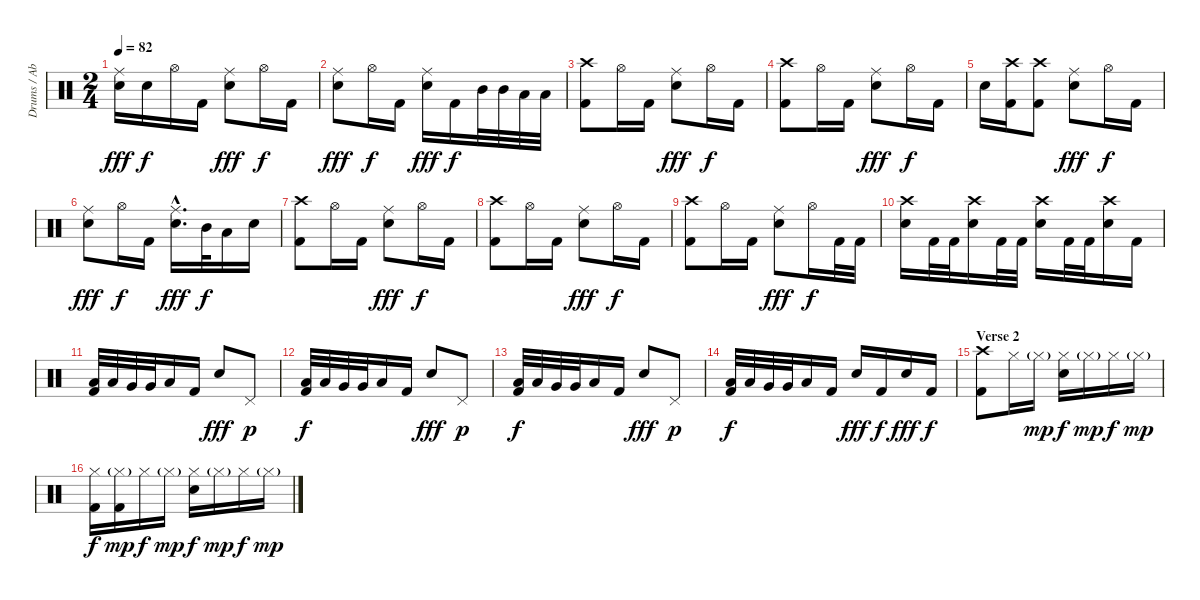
\track ("Drums / Abe Cunningham" "Drums / Ab") {instrument percussion}
\staff {score}
\articulation defaults
\ts (2 4)
\tempo 82
\clef neutral
\ks c
("Ride (middle)" "Electric Snare (hit)").16{dy fff} "Electric Snare (hit)".16{dy f} "Hi-Hat (open)".16 "Kick (hit) 2".16 ("Ride (middle)" "Electric Snare (hit)").8{dy fff} "Hi-Hat (open)".16{dy f} "Kick (hit) 2".16 |
("Ride (middle)" "Electric Snare (hit)").8{dy fff} "Hi-Hat (open)".16{dy f} "Kick (hit) 2".16 ("Ride (middle)" "Electric Snare (hit)").16{dy fff} "Kick (hit) 2".16{dy f} "Mid Tom (hit)".32 "Mid Tom (hit)".32 "Low Tom (hit)".32 "Low Tom (hit)".32 |
("Crash high (hit)" "Kick (hit) 2").8 "Hi-Hat (open)".16 "Kick (hit) 2".16 ("Ride (middle)" "Electric Snare (hit)").8{dy fff} "Hi-Hat (open)".16{dy f} "Kick (hit) 2".16 |
("Crash high (hit)" "Kick (hit) 2").8 "Hi-Hat (open)".16 "Kick (hit) 2".16 ("Ride (middle)" "Electric Snare (hit)").8{dy fff} "Hi-Hat (open)".16{dy f} "Kick (hit) 2".16 |
"Electric Snare (hit)".16 ("Crash high (hit)" "Kick (hit) 2").16 ("Crash high (hit)" "Kick (hit) 2").8 ("Ride (middle)" "Electric Snare (hit)").8{dy fff} "Hi-Hat (open)".16{dy f} "Kick (hit) 2".16 |
("Ride (middle)" "Electric Snare (hit)").8{dy fff} "Hi-Hat (open)".16{dy f} "Kick (hit) 2".16 ("Ride (middle)"{hac} "Electric Snare (hit)"{hac}).16{d dy fff} "Mid Tom (hit)".32{dy f} "Low Floor Tom (hit)".16 "Electric Snare (hit)".16 |
("Crash high (hit)" "Kick (hit) 2").8 "Hi-Hat (open)".16 "Kick (hit) 2".16 ("Ride (middle)" "Electric Snare (hit)").8{dy fff} "Hi-Hat (open)".16{dy f} "Kick (hit) 2".16 |
("Crash high (hit)" "Kick (hit) 2").8 "Hi-Hat (open)".16 "Kick (hit) 2".16 ("Ride (middle)" "Electric Snare (hit)").8{dy fff} "Hi-Hat (open)".16{dy f} "Kick (hit) 2".16 |
("Crash high (hit)" "Kick (hit) 2").8 "Hi-Hat (open)".16 "Kick (hit) 2".16 ("Ride (middle)" "Electric Snare (hit)").8{dy fff} "Hi-Hat (open)".16{dy f} "Kick (hit) 2".32 "Kick (hit) 2".32 |
("Crash high (hit)" "Electric Snare (hit)").16 "Kick (hit) 2".32 "Kick (hit) 2".32 ("Crash high (hit)" "Electric Snare (hit)").16 "Kick (hit) 2".32 "Kick (hit) 2".32 ("Crash high (hit)" "Electric Snare (hit)").16 "Kick (hit) 2".32 "Kick (hit) 2".32 ("Crash high (hit)" "Electric Snare (hit)").16 "Kick (hit) 2".16 |
("Low Tom (hit)" "Kick (hit) 2").32 "Low Tom (hit)".32 "Very Low Tom (hit)".32 "Very Low Tom (hit)".32 "Low Floor Tom (hit)".16 "Kick (hit) 2".16 "Electric Snare (hit)".8{dy fff} "Pedal Hi-Hat (hit)".8{dy p} |
("Low Tom (hit)" "Kick (hit) 2").32{dy f} "Low Tom (hit)".32 "Very Low Tom (hit)".32 "Very Low Tom (hit)".32 "Low Floor Tom (hit)".16 "Kick (hit) 2".16 "Electric Snare (hit)".8{dy fff} "Pedal Hi-Hat (hit)".8{dy p} |
("Low Tom (hit)" "Kick (hit) 2").32{dy f} "Low Tom (hit)".32 "Very Low Tom (hit)".32 "Very Low Tom (hit)".32 "Low Floor Tom (hit)".16 "Kick (hit) 2".16 "Electric Snare (hit)".8{dy fff} "Pedal Hi-Hat (hit)".8{dy p} |
("Low Tom (hit)" "Kick (hit) 2").32{dy f} "Low Tom (hit)".32 "Very Low Tom (hit)".32 "Very Low Tom (hit)".32 "Low Floor Tom (hit)".16 "Kick (hit) 2".16 "Electric Snare (hit)".16{dy fff} "Kick (hit) 2".16{dy f} "Electric Snare (hit)".16{dy fff} "Kick (hit) 2".16{dy f} |
\section ("" "Verse 2")
("Crash high (hit)" "Kick (hit) 2").8 "Hi-Hat (closed)".16 "Hi-Hat (closed)"{g}.16{dy mp} ("Hi-Hat (closed)" "Electric Snare (hit)").16{dy f} "Hi-Hat (closed)"{g}.16{dy mp} "Hi-Hat (closed)".16{dy f} "Hi-Hat (closed)"{g}.16{dy mp} |
("Hi-Hat (closed)" "Kick (hit) 2").16{dy f} ("Hi-Hat (closed)"{g} "Kick (hit) 2").16{dy mp} "Hi-Hat (closed)".16{dy f} "Hi-Hat (closed)"{g}.16{dy mp} ("Hi-Hat (closed)" "Electric Snare (hit)").16{dy f} "Hi-Hat (closed)"{g}.16{dy mp} "Hi-Hat (closed)".16{dy f} "Hi-Hat (closed)"{g}.16{dy mp}
